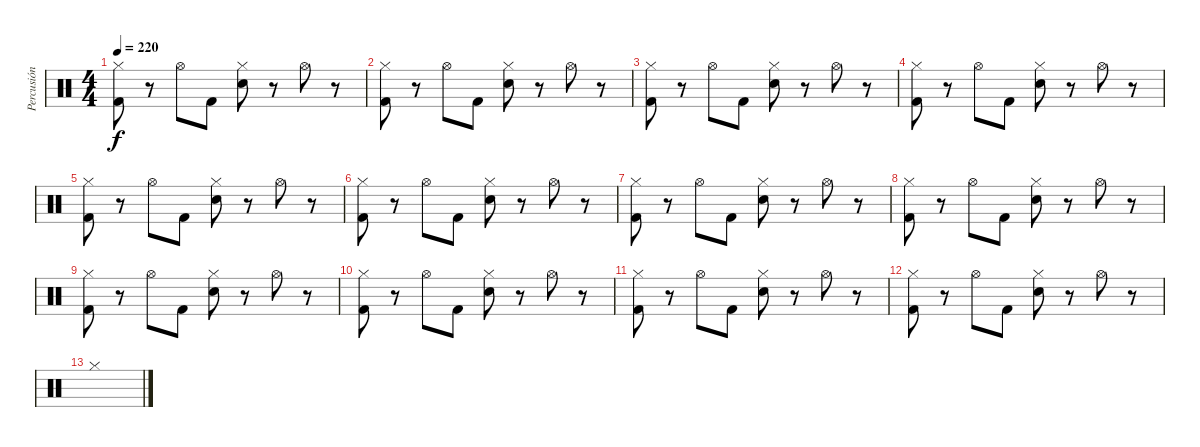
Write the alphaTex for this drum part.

\track ("Percusión" "Percusión") {instrument percussion}
\staff {score}
\articulation defaults
\ts (4 4)
\tempo 220
\clef neutral
\ks c
("Hi-Hat (closed)" "Kick (hit) 2").8{dy f} r.8 "Hi-Hat (open)".8 "Kick (hit) 2".8 ("Hi-Hat (closed)" "Snare (hit) 2").8 r.8 "Hi-Hat (open)".8 r.8 |
("Hi-Hat (closed)" "Kick (hit) 2").8 r.8 "Hi-Hat (open)".8 "Kick (hit) 2".8 ("Hi-Hat (closed)" "Snare (hit) 2").8 r.8 "Hi-Hat (open)".8 r.8 |
("Hi-Hat (closed)" "Kick (hit) 2").8 r.8 "Hi-Hat (open)".8 "Kick (hit) 2".8 ("Hi-Hat (closed)" "Snare (hit) 2").8 r.8 "Hi-Hat (open)".8 r.8 |
("Hi-Hat (closed)" "Kick (hit) 2").8 r.8 "Hi-Hat (open)".8 "Kick (hit) 2".8 ("Hi-Hat (closed)" "Snare (hit) 2").8 r.8 "Hi-Hat (open)".8 r.8 |
("Hi-Hat (closed)" "Kick (hit) 2").8 r.8 "Hi-Hat (open)".8 "Kick (hit) 2".8 ("Hi-Hat (closed)" "Snare (hit) 2").8 r.8 "Hi-Hat (open)".8 r.8 |
("Hi-Hat (closed)" "Kick (hit) 2").8 r.8 "Hi-Hat (open)".8 "Kick (hit) 2".8 ("Hi-Hat (closed)" "Snare (hit) 2").8 r.8 "Hi-Hat (open)".8 r.8 |
("Hi-Hat (closed)" "Kick (hit) 2").8 r.8 "Hi-Hat (open)".8 "Kick (hit) 2".8 ("Hi-Hat (closed)" "Snare (hit) 2").8 r.8 "Hi-Hat (open)".8 r.8 |
("Hi-Hat (closed)" "Kick (hit) 2").8 r.8 "Hi-Hat (open)".8 "Kick (hit) 2".8 ("Hi-Hat (closed)" "Snare (hit) 2").8 r.8 "Hi-Hat (open)".8 r.8 |
("Hi-Hat (closed)" "Kick (hit) 2").8 r.8 "Hi-Hat (open)".8 "Kick (hit) 2".8 ("Hi-Hat (closed)" "Snare (hit) 2").8 r.8 "Hi-Hat (open)".8 r.8 |
("Hi-Hat (closed)" "Kick (hit) 2").8 r.8 "Hi-Hat (open)".8 "Kick (hit) 2".8 ("Hi-Hat (closed)" "Snare (hit) 2").8 r.8 "Hi-Hat (open)".8 r.8 |
("Hi-Hat (closed)" "Kick (hit) 2").8 r.8 "Hi-Hat (open)".8 "Kick (hit) 2".8 ("Hi-Hat (closed)" "Snare (hit) 2").8 r.8 "Hi-Hat (open)".8 r.8 |
("Hi-Hat (closed)" "Kick (hit) 2").8 r.8 "Hi-Hat (open)".8 "Kick (hit) 2".8 ("Hi-Hat (closed)" "Snare (hit) 2").8 r.8 "Hi-Hat (open)".8 r.8 |
"Hi-Hat (closed)".1
